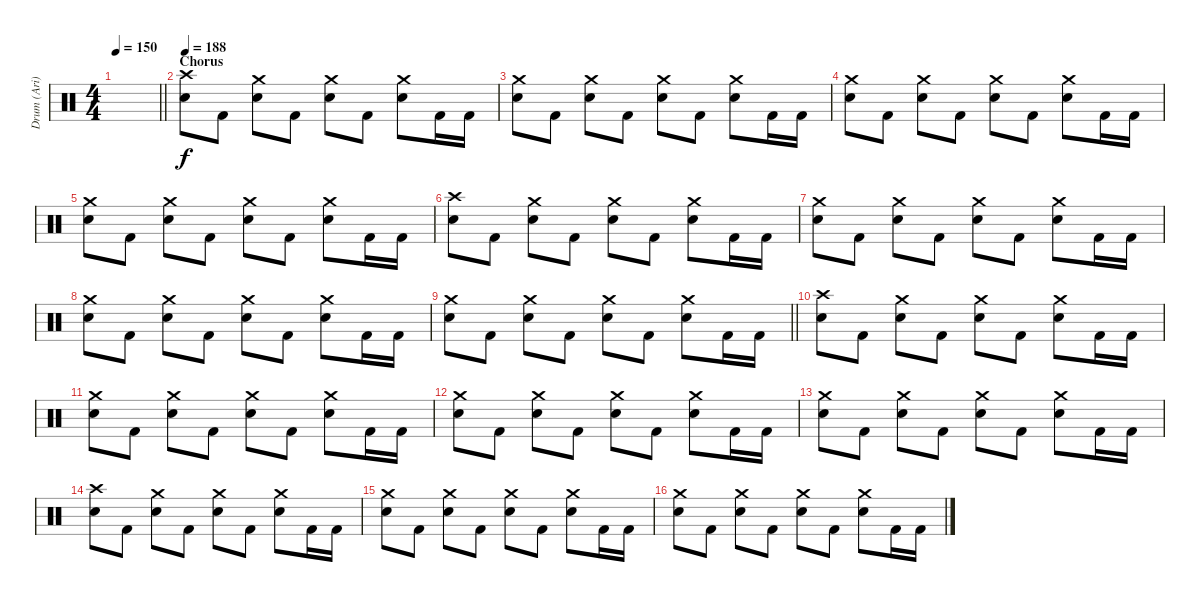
\track ("Drum (Ari)" "Drum (Ari)") {instrument percussion}
\staff {score}
\articulation defaults
\ts (4 4)
\tempo 150
\clef neutral
\barLineRight lightlight
\ks c
|
\section ("" "Chorus")
\tempo 188
("Crash high (hit)" "Electric Snare (hit)").8 "Kick (hit) 2".8 ("Crash medium (hit)" "Electric Snare (hit)").8 "Kick (hit) 2".8 ("Crash medium (hit)" "Electric Snare (hit)").8 "Kick (hit) 2".8 ("Crash medium (hit)" "Electric Snare (hit)").8 "Kick (hit) 2".16 "Kick (hit) 2".16 |
("Crash medium (hit)" "Electric Snare (hit)").8 "Kick (hit) 2".8 ("Crash medium (hit)" "Electric Snare (hit)").8 "Kick (hit) 2".8 ("Crash medium (hit)" "Electric Snare (hit)").8 "Kick (hit) 2".8 ("Crash medium (hit)" "Electric Snare (hit)").8 "Kick (hit) 2".16 "Kick (hit) 2".16 |
("Crash medium (hit)" "Electric Snare (hit)").8 "Kick (hit) 2".8 ("Crash medium (hit)" "Electric Snare (hit)").8 "Kick (hit) 2".8 ("Crash medium (hit)" "Electric Snare (hit)").8 "Kick (hit) 2".8 ("Crash medium (hit)" "Electric Snare (hit)").8 "Kick (hit) 2".16 "Kick (hit) 2".16 |
("Crash medium (hit)" "Electric Snare (hit)").8 "Kick (hit) 2".8 ("Crash medium (hit)" "Electric Snare (hit)").8 "Kick (hit) 2".8 ("Crash medium (hit)" "Electric Snare (hit)").8 "Kick (hit) 2".8 ("Crash medium (hit)" "Electric Snare (hit)").8 "Kick (hit) 2".16 "Kick (hit) 2".16 |
("Crash high (hit)" "Electric Snare (hit)").8 "Kick (hit) 2".8 ("Crash medium (hit)" "Electric Snare (hit)").8 "Kick (hit) 2".8 ("Crash medium (hit)" "Electric Snare (hit)").8 "Kick (hit) 2".8 ("Crash medium (hit)" "Electric Snare (hit)").8 "Kick (hit) 2".16 "Kick (hit) 2".16 |
("Crash medium (hit)" "Electric Snare (hit)").8 "Kick (hit) 2".8 ("Crash medium (hit)" "Electric Snare (hit)").8 "Kick (hit) 2".8 ("Crash medium (hit)" "Electric Snare (hit)").8 "Kick (hit) 2".8 ("Crash medium (hit)" "Electric Snare (hit)").8 "Kick (hit) 2".16 "Kick (hit) 2".16 |
("Crash medium (hit)" "Electric Snare (hit)").8 "Kick (hit) 2".8 ("Crash medium (hit)" "Electric Snare (hit)").8 "Kick (hit) 2".8 ("Crash medium (hit)" "Electric Snare (hit)").8 "Kick (hit) 2".8 ("Crash medium (hit)" "Electric Snare (hit)").8 "Kick (hit) 2".16 "Kick (hit) 2".16 |
\barLineRight lightlight
("Crash medium (hit)" "Electric Snare (hit)").8 "Kick (hit) 2".8 ("Crash medium (hit)" "Electric Snare (hit)").8 "Kick (hit) 2".8 ("Crash medium (hit)" "Electric Snare (hit)").8 "Kick (hit) 2".8 ("Crash medium (hit)" "Electric Snare (hit)").8 "Kick (hit) 2".16 "Kick (hit) 2".16 |
("Crash high (hit)" "Electric Snare (hit)").8 "Kick (hit) 2".8 ("Crash medium (hit)" "Electric Snare (hit)").8 "Kick (hit) 2".8 ("Crash medium (hit)" "Electric Snare (hit)").8 "Kick (hit) 2".8 ("Crash medium (hit)" "Electric Snare (hit)").8 "Kick (hit) 2".16 "Kick (hit) 2".16 |
("Crash medium (hit)" "Electric Snare (hit)").8 "Kick (hit) 2".8 ("Crash medium (hit)" "Electric Snare (hit)").8 "Kick (hit) 2".8 ("Crash medium (hit)" "Electric Snare (hit)").8 "Kick (hit) 2".8 ("Crash medium (hit)" "Electric Snare (hit)").8 "Kick (hit) 2".16 "Kick (hit) 2".16 |
("Crash medium (hit)" "Electric Snare (hit)").8 "Kick (hit) 2".8 ("Crash medium (hit)" "Electric Snare (hit)").8 "Kick (hit) 2".8 ("Crash medium (hit)" "Electric Snare (hit)").8 "Kick (hit) 2".8 ("Crash medium (hit)" "Electric Snare (hit)").8 "Kick (hit) 2".16 "Kick (hit) 2".16 |
("Crash medium (hit)" "Electric Snare (hit)").8 "Kick (hit) 2".8 ("Crash medium (hit)" "Electric Snare (hit)").8 "Kick (hit) 2".8 ("Crash medium (hit)" "Electric Snare (hit)").8 "Kick (hit) 2".8 ("Crash medium (hit)" "Electric Snare (hit)").8 "Kick (hit) 2".16 "Kick (hit) 2".16 |
("Crash high (hit)" "Electric Snare (hit)").8 "Kick (hit) 2".8 ("Crash medium (hit)" "Electric Snare (hit)").8 "Kick (hit) 2".8 ("Crash medium (hit)" "Electric Snare (hit)").8 "Kick (hit) 2".8 ("Crash medium (hit)" "Electric Snare (hit)").8 "Kick (hit) 2".16 "Kick (hit) 2".16 |
("Crash medium (hit)" "Electric Snare (hit)").8 "Kick (hit) 2".8 ("Crash medium (hit)" "Electric Snare (hit)").8 "Kick (hit) 2".8 ("Crash medium (hit)" "Electric Snare (hit)").8 "Kick (hit) 2".8 ("Crash medium (hit)" "Electric Snare (hit)").8 "Kick (hit) 2".16 "Kick (hit) 2".16 |
("Crash medium (hit)" "Electric Snare (hit)").8 "Kick (hit) 2".8 ("Crash medium (hit)" "Electric Snare (hit)").8 "Kick (hit) 2".8 ("Crash medium (hit)" "Electric Snare (hit)").8 "Kick (hit) 2".8 ("Crash medium (hit)" "Electric Snare (hit)").8 "Kick (hit) 2".16 "Kick (hit) 2".16
